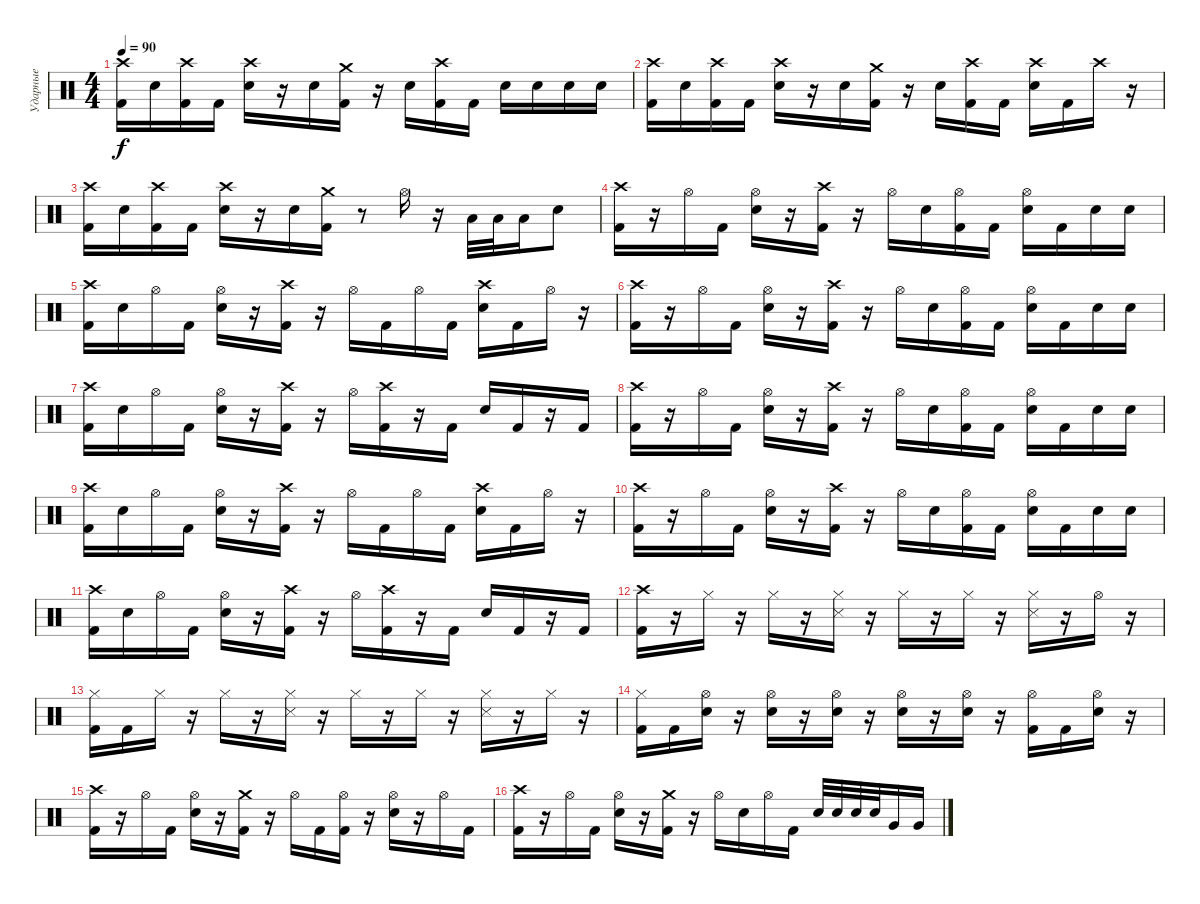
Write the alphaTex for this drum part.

\track ("Ударные" "Ударные") {instrument percussion}
\staff {score}
\articulation defaults
\ts (4 4)
\tempo 90
\clef neutral
\ks c
("Crash high (hit)" "Kick (hit) 2").16{dy f} "Electric Snare (hit)".16 ("Crash high (hit)" "Kick (hit) 2").16 "Kick (hit) 2".16 ("Crash high (hit)" "Electric Snare (hit)").16 r.16 "Electric Snare (hit)".16 ("Crash medium (hit)" "Kick (hit) 2").16 r.16 "Electric Snare (hit)".16 ("Crash high (hit)" "Kick (hit) 2").16 "Kick (hit) 2".16 "Electric Snare (hit)".16 "Electric Snare (hit)".16 "Electric Snare (hit)".16 "Electric Snare (hit)".16 |
("Crash high (hit)" "Kick (hit) 2").16 "Electric Snare (hit)".16 ("Crash high (hit)" "Kick (hit) 2").16 "Kick (hit) 2".16 ("Crash high (hit)" "Electric Snare (hit)").16 r.16 "Electric Snare (hit)".16 ("Crash medium (hit)" "Kick (hit) 2").16 r.16 "Electric Snare (hit)".16 ("Crash high (hit)" "Kick (hit) 2").16 "Kick (hit) 2".16 ("Crash high (hit)" "Electric Snare (hit)").16 "Kick (hit) 2".16 "Crash high (hit)".16 r.16 |
("Crash high (hit)" "Kick (hit) 2").16 "Electric Snare (hit)".16 ("Crash high (hit)" "Kick (hit) 2").16 "Kick (hit) 2".16 ("Crash high (hit)" "Electric Snare (hit)").16 r.16 "Electric Snare (hit)".16 ("Crash medium (hit)" "Kick (hit) 2").16 r.8 "Hi-Hat (open)".16 r.16 "Low Tom (hit)".32 "Low Tom (hit)".32 "Low Tom (hit)".16 "Electric Snare (hit)".8 |
("Crash high (hit)" "Kick (hit) 2").16 r.16 "Hi-Hat (open)".16 "Kick (hit) 2".16 ("Hi-Hat (open)" "Electric Snare (hit)").16 r.16 ("Crash high (hit)" "Kick (hit) 2").16 r.16 "Hi-Hat (open)".16 "Electric Snare (hit)".16 ("Hi-Hat (open)" "Kick (hit) 2").16 "Kick (hit) 2".16 ("Hi-Hat (open)" "Electric Snare (hit)").16 "Kick (hit) 2".16 "Electric Snare (hit)".16 "Electric Snare (hit)".16 |
("Crash high (hit)" "Kick (hit) 2").16 "Electric Snare (hit)".16 "Hi-Hat (open)".16 "Kick (hit) 2".16 ("Hi-Hat (open)" "Electric Snare (hit)").16 r.16 ("Crash high (hit)" "Kick (hit) 2").16 r.16 "Hi-Hat (open)".16 "Kick (hit) 2".16 "Hi-Hat (open)".16 "Kick (hit) 2".16 ("Crash high (hit)" "Electric Snare (hit)").16 "Kick (hit) 2".16 "Hi-Hat (open)".16 r.16 |
("Crash high (hit)" "Kick (hit) 2").16 r.16 "Hi-Hat (open)".16 "Kick (hit) 2".16 ("Hi-Hat (open)" "Electric Snare (hit)").16 r.16 ("Crash high (hit)" "Kick (hit) 2").16 r.16 "Hi-Hat (open)".16 "Electric Snare (hit)".16 ("Hi-Hat (open)" "Kick (hit) 2").16 "Kick (hit) 2".16 ("Hi-Hat (open)" "Electric Snare (hit)").16 "Kick (hit) 2".16 "Electric Snare (hit)".16 "Electric Snare (hit)".16 |
("Crash high (hit)" "Kick (hit) 2").16 "Electric Snare (hit)".16 "Hi-Hat (open)".16 "Kick (hit) 2".16 ("Hi-Hat (open)" "Electric Snare (hit)").16 r.16 ("Crash high (hit)" "Kick (hit) 2").16 r.16 "Hi-Hat (open)".16 ("Crash high (hit)" "Kick (hit) 2").16 r.16 "Kick (hit) 2".16 "Electric Snare (hit)".16 "Kick (hit) 2".16 r.16 "Kick (hit) 2".16 |
("Crash high (hit)" "Kick (hit) 2").16 r.16 "Hi-Hat (open)".16 "Kick (hit) 2".16 ("Hi-Hat (open)" "Electric Snare (hit)").16 r.16 ("Crash high (hit)" "Kick (hit) 2").16 r.16 "Hi-Hat (open)".16 "Electric Snare (hit)".16 ("Hi-Hat (open)" "Kick (hit) 2").16 "Kick (hit) 2".16 ("Hi-Hat (open)" "Electric Snare (hit)").16 "Kick (hit) 2".16 "Electric Snare (hit)".16 "Electric Snare (hit)".16 |
("Crash high (hit)" "Kick (hit) 2").16 "Electric Snare (hit)".16 "Hi-Hat (open)".16 "Kick (hit) 2".16 ("Hi-Hat (open)" "Electric Snare (hit)").16 r.16 ("Crash high (hit)" "Kick (hit) 2").16 r.16 "Hi-Hat (open)".16 "Kick (hit) 2".16 "Hi-Hat (open)".16 "Kick (hit) 2".16 ("Crash high (hit)" "Electric Snare (hit)").16 "Kick (hit) 2".16 "Hi-Hat (open)".16 r.16 |
("Crash high (hit)" "Kick (hit) 2").16 r.16 "Hi-Hat (open)".16 "Kick (hit) 2".16 ("Hi-Hat (open)" "Electric Snare (hit)").16 r.16 ("Crash high (hit)" "Kick (hit) 2").16 r.16 "Hi-Hat (open)".16 "Electric Snare (hit)".16 ("Hi-Hat (open)" "Kick (hit) 2").16 "Kick (hit) 2".16 ("Hi-Hat (open)" "Electric Snare (hit)").16 "Kick (hit) 2".16 "Electric Snare (hit)".16 "Electric Snare (hit)".16 |
("Crash high (hit)" "Kick (hit) 2").16 "Electric Snare (hit)".16 "Hi-Hat (open)".16 "Kick (hit) 2".16 ("Hi-Hat (open)" "Electric Snare (hit)").16 r.16 ("Crash high (hit)" "Kick (hit) 2").16 r.16 "Hi-Hat (open)".16 ("Crash high (hit)" "Kick (hit) 2").16 r.16 "Kick (hit) 2".16 "Electric Snare (hit)".16 "Kick (hit) 2".16 r.16 "Kick (hit) 2".16 |
("Crash high (hit)" "Kick (hit) 2").16 r.16 "Hi-Hat (closed)".16 r.16 "Hi-Hat (closed)".16 r.16 ("Hi-Hat (closed)" "Snare (side stick) 3").16 r.16 "Hi-Hat (closed)".16 r.16 "Hi-Hat (closed)".16 r.16 ("Hi-Hat (closed)" "Snare (side stick) 3").16 r.16 "Hi-Hat (open)".16 r.16 |
("Hi-Hat (closed)" "Kick (hit) 2").16 "Kick (hit) 2".16 "Hi-Hat (closed)".16 r.16 "Hi-Hat (closed)".16 r.16 ("Hi-Hat (closed)" "Snare (side stick) 3").16 r.16 "Hi-Hat (closed)".16 r.16 "Hi-Hat (closed)".16 r.16 ("Hi-Hat (closed)" "Snare (side stick) 3").16 r.16 "Hi-Hat (closed)".16 r.16 |
("Hi-Hat (closed)" "Kick (hit) 2").16 "Kick (hit) 2".16 ("Hi-Hat (open)" "Electric Snare (hit)").16 r.16 ("Hi-Hat (open)" "Electric Snare (hit)").16 r.16 ("Hi-Hat (open)" "Electric Snare (hit)").16 r.16 ("Hi-Hat (open)" "Electric Snare (hit)").16 r.16 ("Hi-Hat (open)" "Electric Snare (hit)").16 r.16 ("Hi-Hat (open)" "Kick (hit) 2").16 "Kick (hit) 2".16 ("Hi-Hat (open)" "Electric Snare (hit)").16 r.16 |
("Crash high (hit)" "Kick (hit) 2").16 r.16 "Hi-Hat (open)".16 "Kick (hit) 2".16 ("Hi-Hat (open)" "Electric Snare (hit)").16 r.16 ("Crash medium (hit)" "Kick (hit) 2").16 r.16 "Hi-Hat (open)".16 "Kick (hit) 2".16 ("Hi-Hat (open)" "Kick (hit) 2").16 r.16 ("Hi-Hat (open)" "Electric Snare (hit)").16 r.16 "Hi-Hat (open)".16 "Kick (hit) 2".16 |
("Crash high (hit)" "Kick (hit) 2").16 r.16 "Hi-Hat (open)".16 "Kick (hit) 2".16 ("Hi-Hat (open)" "Electric Snare (hit)").16 r.16 ("Crash medium (hit)" "Kick (hit) 2").16 r.16 "Hi-Hat (open)".16 "Electric Snare (hit)".16 "Hi-Hat (open)".16 "Kick (hit) 2".16 "Electric Snare (hit)".32 "Electric Snare (hit)".32 "Electric Snare (hit)".32 "Electric Snare (hit)".32 "Very Low Tom (hit)".16 "Very Low Tom (hit)".16
